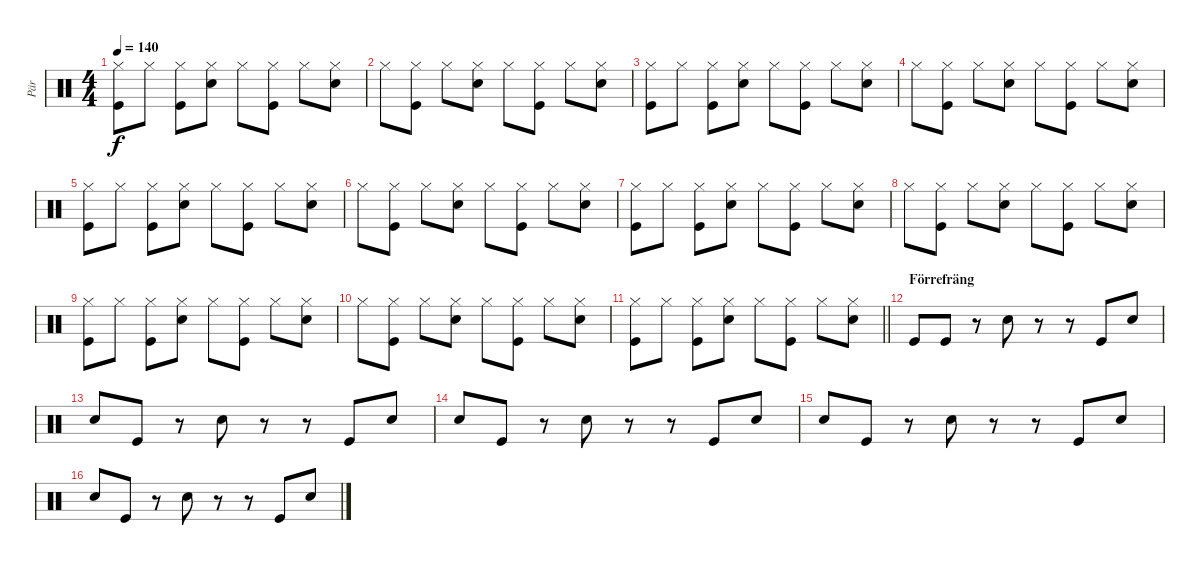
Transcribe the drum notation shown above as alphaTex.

\track ("Pär" "Pär") {instrument percussion}
\staff {score}
\articulation defaults
\ts (4 4)
\tempo 140
\clef neutral
\ks c
("Hi-Hat (closed)" "Kick (hit)").8{dy f} "Hi-Hat (closed)".8 ("Hi-Hat (closed)" "Kick (hit)").8 ("Hi-Hat (closed)" "Snare (hit) 2").8 "Hi-Hat (closed)".8 ("Hi-Hat (closed)" "Kick (hit)").8 "Hi-Hat (closed)".8 ("Hi-Hat (closed)" "Snare (hit) 2").8 |
"Hi-Hat (closed)".8 ("Hi-Hat (closed)" "Kick (hit)").8 "Hi-Hat (closed)".8 ("Hi-Hat (closed)" "Snare (hit) 2").8 "Hi-Hat (closed)".8 ("Hi-Hat (closed)" "Kick (hit)").8 "Hi-Hat (closed)".8 ("Hi-Hat (closed)" "Snare (hit) 2").8 |
("Hi-Hat (closed)" "Kick (hit)").8 "Hi-Hat (closed)".8 ("Hi-Hat (closed)" "Kick (hit)").8 ("Hi-Hat (closed)" "Snare (hit) 2").8 "Hi-Hat (closed)".8 ("Hi-Hat (closed)" "Kick (hit)").8 "Hi-Hat (closed)".8 ("Hi-Hat (closed)" "Snare (hit) 2").8 |
"Hi-Hat (closed)".8 ("Hi-Hat (closed)" "Kick (hit)").8 "Hi-Hat (closed)".8 ("Hi-Hat (closed)" "Snare (hit) 2").8 "Hi-Hat (closed)".8 ("Hi-Hat (closed)" "Kick (hit)").8 "Hi-Hat (closed)".8 ("Hi-Hat (closed)" "Snare (hit) 2").8 |
("Hi-Hat (closed)" "Kick (hit)").8 "Hi-Hat (closed)".8 ("Hi-Hat (closed)" "Kick (hit)").8 ("Hi-Hat (closed)" "Snare (hit) 2").8 "Hi-Hat (closed)".8 ("Hi-Hat (closed)" "Kick (hit)").8 "Hi-Hat (closed)".8 ("Hi-Hat (closed)" "Snare (hit) 2").8 |
"Hi-Hat (closed)".8 ("Hi-Hat (closed)" "Kick (hit)").8 "Hi-Hat (closed)".8 ("Hi-Hat (closed)" "Snare (hit) 2").8 "Hi-Hat (closed)".8 ("Hi-Hat (closed)" "Kick (hit)").8 "Hi-Hat (closed)".8 ("Hi-Hat (closed)" "Snare (hit) 2").8 |
("Hi-Hat (closed)" "Kick (hit)").8 "Hi-Hat (closed)".8 ("Hi-Hat (closed)" "Kick (hit)").8 ("Hi-Hat (closed)" "Snare (hit) 2").8 "Hi-Hat (closed)".8 ("Hi-Hat (closed)" "Kick (hit)").8 "Hi-Hat (closed)".8 ("Hi-Hat (closed)" "Snare (hit) 2").8 |
"Hi-Hat (closed)".8 ("Hi-Hat (closed)" "Kick (hit)").8 "Hi-Hat (closed)".8 ("Hi-Hat (closed)" "Snare (hit) 2").8 "Hi-Hat (closed)".8 ("Hi-Hat (closed)" "Kick (hit)").8 "Hi-Hat (closed)".8 ("Hi-Hat (closed)" "Snare (hit) 2").8 |
("Hi-Hat (closed)" "Kick (hit)").8 "Hi-Hat (closed)".8 ("Hi-Hat (closed)" "Kick (hit)").8 ("Hi-Hat (closed)" "Snare (hit) 2").8 "Hi-Hat (closed)".8 ("Hi-Hat (closed)" "Kick (hit)").8 "Hi-Hat (closed)".8 ("Hi-Hat (closed)" "Snare (hit) 2").8 |
"Hi-Hat (closed)".8 ("Hi-Hat (closed)" "Kick (hit)").8 "Hi-Hat (closed)".8 ("Hi-Hat (closed)" "Snare (hit) 2").8 "Hi-Hat (closed)".8 ("Hi-Hat (closed)" "Kick (hit)").8 "Hi-Hat (closed)".8 ("Hi-Hat (closed)" "Snare (hit) 2").8 |
\barLineRight lightlight
("Hi-Hat (closed)" "Kick (hit)").8 "Hi-Hat (closed)".8 ("Hi-Hat (closed)" "Kick (hit)").8 ("Hi-Hat (closed)" "Snare (hit) 2").8 "Hi-Hat (closed)".8 ("Hi-Hat (closed)" "Kick (hit)").8 "Hi-Hat (closed)".8 ("Hi-Hat (closed)" "Snare (hit) 2").8 |
\section ("" "Förrefräng")
"Kick (hit)".8 "Kick (hit)".8 r.8 "Snare (hit) 2".8 r.8 r.8 "Kick (hit)".8 "Snare (hit) 2".8 |
"Snare (hit) 2".8 "Kick (hit)".8 r.8 "Snare (hit) 2".8 r.8 r.8 "Kick (hit)".8 "Snare (hit) 2".8 |
"Snare (hit) 2".8 "Kick (hit)".8 r.8 "Snare (hit) 2".8 r.8 r.8 "Kick (hit)".8 "Snare (hit) 2".8 |
"Snare (hit) 2".8 "Kick (hit)".8 r.8 "Snare (hit) 2".8 r.8 r.8 "Kick (hit)".8 "Snare (hit) 2".8 |
"Snare (hit) 2".8 "Kick (hit)".8 r.8 "Snare (hit) 2".8 r.8 r.8 "Kick (hit)".8 "Snare (hit) 2".8
